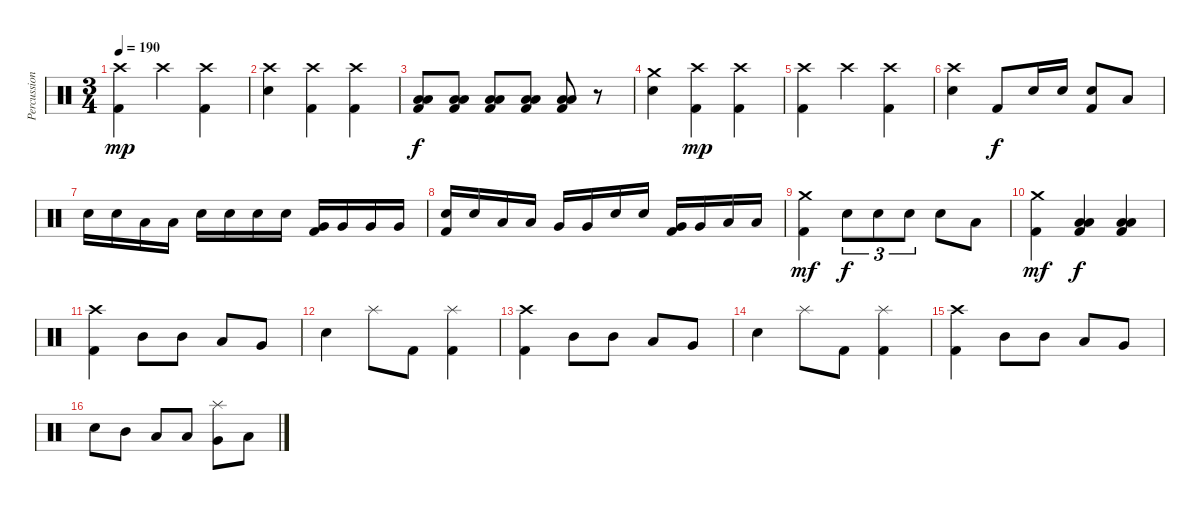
\track ("Percussion" "Percussion") {instrument percussion}
\staff {score}
\articulation defaults
\ts (3 4)
\tempo 190
\clef neutral
\ks c
("Crash high (hit)" "Kick (hit) 2").4{dy mp} "Crash high (hit)".4 ("Crash high (hit)" "Kick (hit) 2").4 |
("Crash high (hit)" "Electric Snare (hit)").4 ("Crash high (hit)" "Kick (hit) 2").4 ("Crash high (hit)" "Kick (hit) 2").4 |
("Low Tom (hit)" "Low Floor Tom (hit)" "Kick (hit) 2").8{dy f} ("Low Tom (hit)" "Low Floor Tom (hit)" "Kick (hit) 2").8 ("Low Tom (hit)" "Low Floor Tom (hit)" "Kick (hit) 2").8 ("Low Tom (hit)" "Low Floor Tom (hit)" "Kick (hit) 2").8 ("Low Tom (hit)" "Low Floor Tom (hit)" "Kick (hit) 2").8 r.8 |
("Crash medium (hit)" "Electric Snare (hit)").4 ("Crash high (hit)" "Kick (hit) 2").4{dy mp} ("Crash high (hit)" "Kick (hit) 2").4 |
("Crash high (hit)" "Kick (hit) 2").4 "Crash high (hit)".4 ("Crash high (hit)" "Kick (hit) 2").4 |
("Crash high (hit)" "Electric Snare (hit)").4 "Kick (hit) 2".8{dy f} "Electric Snare (hit)".16 "Electric Snare (hit)".16 ("Electric Snare (hit)" "Kick (hit) 2").8 "Low Floor Tom (hit)".8 |
"Electric Snare (hit)".16 "Electric Snare (hit)".16 "Low Tom (hit)".16 "Low Tom (hit)".16 "Electric Snare (hit)".16 "Electric Snare (hit)".16 "Electric Snare (hit)".16 "Electric Snare (hit)".16 ("Very Low Tom (hit)" "Kick (hit) 2").16 "Very Low Tom (hit)".16 "Very Low Tom (hit)".16 "Very Low Tom (hit)".16 |
("Electric Snare (hit)" "Kick (hit) 2").16 "Electric Snare (hit)".16 "Low Tom (hit)".16 "Low Tom (hit)".16 "Very Low Tom (hit)".16 "Very Low Tom (hit)".16 "Electric Snare (hit)".16 "Electric Snare (hit)".16 ("Very Low Tom (hit)" "Kick (hit) 2").16 "Very Low Tom (hit)".16 "Low Floor Tom (hit)".16 "Low Floor Tom (hit)".16 |
("Crash medium (hit)" "Kick (hit) 2").4{dy mf} "Electric Snare (hit)".8{tu (3 2) dy f} "Electric Snare (hit)".8{tu (3 2)} "Electric Snare (hit)".8{tu (3 2)} "Electric Snare (hit)".8 "Low Floor Tom (hit)".8 |
("Crash medium (hit)" "Kick (hit) 2").4{dy mf} ("Low Tom (hit)" "Low Floor Tom (hit)" "Kick (hit) 2").4{dy f} ("Low Tom (hit)" "Low Floor Tom (hit)" "Kick (hit) 2").4 |
("Crash high (hit)" "Kick (hit) 2").4 "Mid Tom (hit)".8 "Mid Tom (hit)".8 "Low Tom (hit)".8 "Very Low Tom (hit)".8 |
"Electric Snare (hit)".4 "Splash (hit)".8 "Kick (hit) 2".8 ("Splash (hit)" "Kick (hit) 2").4 |
("Crash high (hit)" "Kick (hit) 2").4 "Mid Tom (hit)".8 "Mid Tom (hit)".8 "Low Tom (hit)".8 "Very Low Tom (hit)".8 |
"Electric Snare (hit)".4 "Splash (hit)".8 "Kick (hit) 2".8 ("Splash (hit)" "Kick (hit) 2").4 |
("Crash high (hit)" "Kick (hit) 2").4 "Mid Tom (hit)".8 "Mid Tom (hit)".8 "Low Tom (hit)".8 "Very Low Tom (hit)".8 |
"Electric Snare (hit)".8 "Mid Tom (hit)".8 "Low Tom (hit)".8 "Low Tom (hit)".8 ("Splash (hit)" "Very Low Tom (hit)").8 "Low Floor Tom (hit)".8
